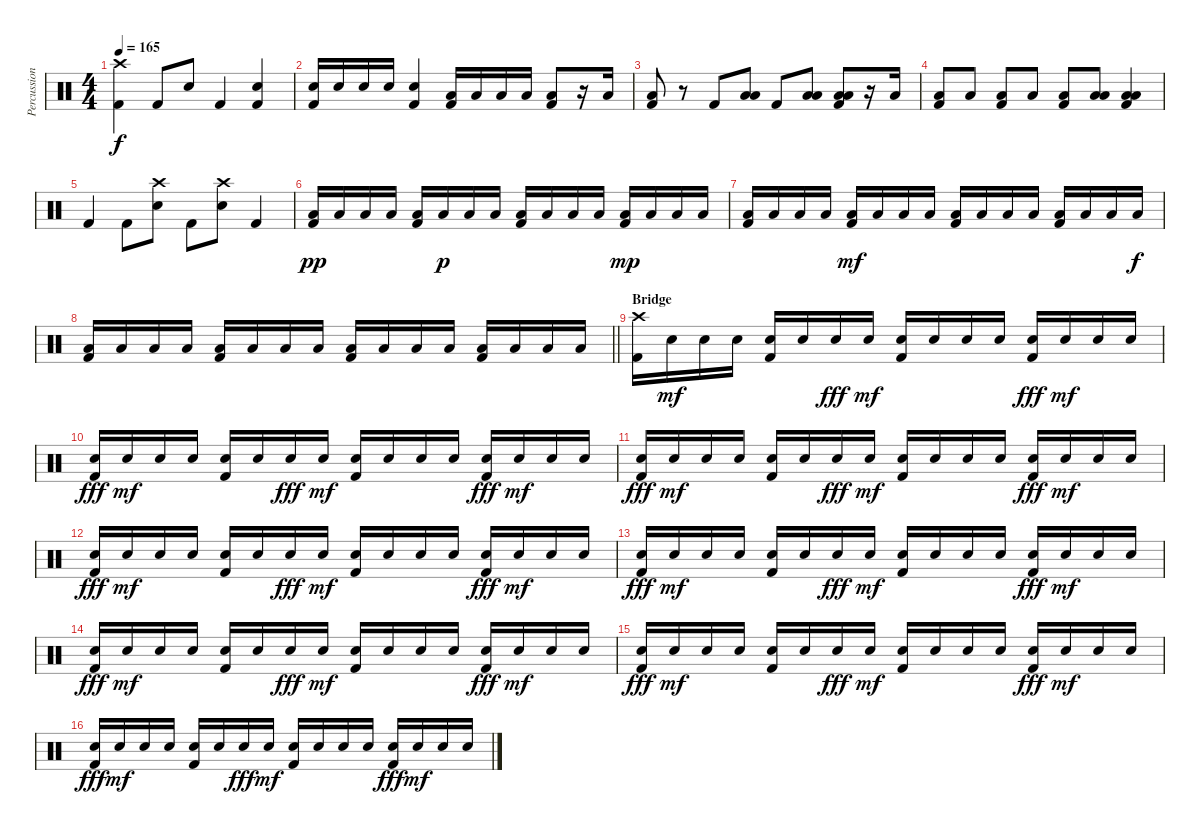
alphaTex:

\track ("Percussion" "Percussion") {instrument percussion}
\staff {score}
\articulation defaults
\ts (4 4)
\tempo 165
\clef neutral
\ks c
("Crash high (hit)" "Kick (hit) 2").4{dy f} "Kick (hit) 2".8 "Electric Snare (hit)".8 "Kick (hit) 2".4 ("Electric Snare (hit)" "Kick (hit) 2").4 |
("Electric Snare (hit)" "Kick (hit) 2").16 "Electric Snare (hit)".16 "Electric Snare (hit)".16 "Electric Snare (hit)".16 ("Electric Snare (hit)" "Kick (hit) 2").4 ("Low Tom (hit)" "Kick (hit) 2").16 "Low Tom (hit)".16 "Low Tom (hit)".16 "Low Tom (hit)".16 ("Low Tom (hit)" "Kick (hit) 2").8 r.16 "Low Tom (hit)".16 |
("Low Tom (hit)" "Kick (hit) 2").8 r.8 "Kick (hit) 2".8 ("Low Tom (hit)" "Low Tom (hit)").8 "Kick (hit) 2".8 ("Low Tom (hit)" "Low Tom (hit)").8 ("Low Tom (hit)" "Low Tom (hit)" "Kick (hit) 2").8 r.16 "Low Tom (hit)".16 |
("Low Tom (hit)" "Kick (hit) 2").8 "Low Tom (hit)".8 ("Low Tom (hit)" "Kick (hit) 2").8 "Low Tom (hit)".8 ("Low Tom (hit)" "Kick (hit) 2").8 ("Low Floor Tom (hit)" "Low Tom (hit)").8 ("Low Floor Tom (hit)" "Low Tom (hit)" "Kick (hit) 2").4 |
"Kick (hit) 2".4 "Kick (hit) 2".8 ("Crash high (hit)" "Electric Snare (hit)").8 "Kick (hit) 2".8 ("Crash high (hit)" "Electric Snare (hit)").8 "Kick (hit) 2".4 |
("Low Tom (hit)" "Kick (hit) 2").16{dy pp} "Low Tom (hit)".16 "Low Tom (hit)".16 "Low Tom (hit)".16 ("Low Tom (hit)" "Kick (hit) 2").16 "Low Tom (hit)".16{dy p} "Low Tom (hit)".16 "Low Tom (hit)".16 ("Low Tom (hit)" "Kick (hit) 2").16 "Low Tom (hit)".16 "Low Tom (hit)".16 "Low Tom (hit)".16 ("Low Tom (hit)" "Kick (hit) 2").16{dy mp} "Low Tom (hit)".16 "Low Tom (hit)".16 "Low Tom (hit)".16 |
("Low Tom (hit)" "Kick (hit) 2").16 "Low Tom (hit)".16 "Low Tom (hit)".16 "Low Tom (hit)".16 ("Low Tom (hit)" "Kick (hit) 2").16{dy mf} "Low Tom (hit)".16 "Low Tom (hit)".16 "Low Tom (hit)".16 ("Low Tom (hit)" "Kick (hit) 2").16 "Low Tom (hit)".16 "Low Tom (hit)".16 "Low Tom (hit)".16 ("Low Tom (hit)" "Kick (hit) 2").16 "Low Tom (hit)".16 "Low Tom (hit)".16 "Low Tom (hit)".16{dy f} |
\barLineRight lightlight
("Low Tom (hit)" "Kick (hit) 2").16 "Low Tom (hit)".16 "Low Tom (hit)".16 "Low Tom (hit)".16 ("Low Tom (hit)" "Kick (hit) 2").16 "Low Tom (hit)".16 "Low Tom (hit)".16 "Low Tom (hit)".16 ("Low Tom (hit)" "Kick (hit) 2").16 "Low Tom (hit)".16 "Low Tom (hit)".16 "Low Tom (hit)".16 ("Low Tom (hit)" "Kick (hit) 2").16 "Low Tom (hit)".16 "Low Tom (hit)".16 "Low Tom (hit)".16 |
\section ("" "Bridge")
("Crash high (hit)" "Kick (hit) 2").16 "Electric Snare (hit)".16{dy mf} "Electric Snare (hit)".16 "Electric Snare (hit)".16 ("Electric Snare (hit)" "Kick (hit) 2").16 "Electric Snare (hit)".16 "Electric Snare (hit)".16{dy fff} "Electric Snare (hit)".16{dy mf} ("Electric Snare (hit)" "Kick (hit) 2").16 "Electric Snare (hit)".16 "Electric Snare (hit)".16 "Electric Snare (hit)".16 ("Electric Snare (hit)" "Kick (hit) 2").16{dy fff} "Electric Snare (hit)".16{dy mf} "Electric Snare (hit)".16 "Electric Snare (hit)".16 |
("Electric Snare (hit)" "Kick (hit) 2").16{dy fff} "Electric Snare (hit)".16{dy mf} "Electric Snare (hit)".16 "Electric Snare (hit)".16 ("Electric Snare (hit)" "Kick (hit) 2").16 "Electric Snare (hit)".16 "Electric Snare (hit)".16{dy fff} "Electric Snare (hit)".16{dy mf} ("Electric Snare (hit)" "Kick (hit) 2").16 "Electric Snare (hit)".16 "Electric Snare (hit)".16 "Electric Snare (hit)".16 ("Electric Snare (hit)" "Kick (hit) 2").16{dy fff} "Electric Snare (hit)".16{dy mf} "Electric Snare (hit)".16 "Electric Snare (hit)".16 |
("Electric Snare (hit)" "Kick (hit) 2").16{dy fff} "Electric Snare (hit)".16{dy mf} "Electric Snare (hit)".16 "Electric Snare (hit)".16 ("Electric Snare (hit)" "Kick (hit) 2").16 "Electric Snare (hit)".16 "Electric Snare (hit)".16{dy fff} "Electric Snare (hit)".16{dy mf} ("Electric Snare (hit)" "Kick (hit) 2").16 "Electric Snare (hit)".16 "Electric Snare (hit)".16 "Electric Snare (hit)".16 ("Electric Snare (hit)" "Kick (hit) 2").16{dy fff} "Electric Snare (hit)".16{dy mf} "Electric Snare (hit)".16 "Electric Snare (hit)".16 |
("Electric Snare (hit)" "Kick (hit) 2").16{dy fff} "Electric Snare (hit)".16{dy mf} "Electric Snare (hit)".16 "Electric Snare (hit)".16 ("Electric Snare (hit)" "Kick (hit) 2").16 "Electric Snare (hit)".16 "Electric Snare (hit)".16{dy fff} "Electric Snare (hit)".16{dy mf} ("Electric Snare (hit)" "Kick (hit) 2").16 "Electric Snare (hit)".16 "Electric Snare (hit)".16 "Electric Snare (hit)".16 ("Electric Snare (hit)" "Kick (hit) 2").16{dy fff} "Electric Snare (hit)".16{dy mf} "Electric Snare (hit)".16 "Electric Snare (hit)".16 |
("Electric Snare (hit)" "Kick (hit) 2").16{dy fff} "Electric Snare (hit)".16{dy mf} "Electric Snare (hit)".16 "Electric Snare (hit)".16 ("Electric Snare (hit)" "Kick (hit) 2").16 "Electric Snare (hit)".16 "Electric Snare (hit)".16{dy fff} "Electric Snare (hit)".16{dy mf} ("Electric Snare (hit)" "Kick (hit) 2").16 "Electric Snare (hit)".16 "Electric Snare (hit)".16 "Electric Snare (hit)".16 ("Electric Snare (hit)" "Kick (hit) 2").16{dy fff} "Electric Snare (hit)".16{dy mf} "Electric Snare (hit)".16 "Electric Snare (hit)".16 |
("Electric Snare (hit)" "Kick (hit) 2").16{dy fff} "Electric Snare (hit)".16{dy mf} "Electric Snare (hit)".16 "Electric Snare (hit)".16 ("Electric Snare (hit)" "Kick (hit) 2").16 "Electric Snare (hit)".16 "Electric Snare (hit)".16{dy fff} "Electric Snare (hit)".16{dy mf} ("Electric Snare (hit)" "Kick (hit) 2").16 "Electric Snare (hit)".16 "Electric Snare (hit)".16 "Electric Snare (hit)".16 ("Electric Snare (hit)" "Kick (hit) 2").16{dy fff} "Electric Snare (hit)".16{dy mf} "Electric Snare (hit)".16 "Electric Snare (hit)".16 |
("Electric Snare (hit)" "Kick (hit) 2").16{dy fff} "Electric Snare (hit)".16{dy mf} "Electric Snare (hit)".16 "Electric Snare (hit)".16 ("Electric Snare (hit)" "Kick (hit) 2").16 "Electric Snare (hit)".16 "Electric Snare (hit)".16{dy fff} "Electric Snare (hit)".16{dy mf} ("Electric Snare (hit)" "Kick (hit) 2").16 "Electric Snare (hit)".16 "Electric Snare (hit)".16 "Electric Snare (hit)".16 ("Electric Snare (hit)" "Kick (hit) 2").16{dy fff} "Electric Snare (hit)".16{dy mf} "Electric Snare (hit)".16 "Electric Snare (hit)".16 |
("Electric Snare (hit)" "Kick (hit) 2").16{dy fff} "Electric Snare (hit)".16{dy mf} "Electric Snare (hit)".16 "Electric Snare (hit)".16 ("Electric Snare (hit)" "Kick (hit) 2").16 "Electric Snare (hit)".16 "Electric Snare (hit)".16{dy fff} "Electric Snare (hit)".16{dy mf} ("Electric Snare (hit)" "Kick (hit) 2").16 "Electric Snare (hit)".16 "Electric Snare (hit)".16 "Electric Snare (hit)".16 ("Electric Snare (hit)" "Kick (hit) 2").16{dy fff} "Electric Snare (hit)".16{dy mf} "Electric Snare (hit)".16 "Electric Snare (hit)".16
